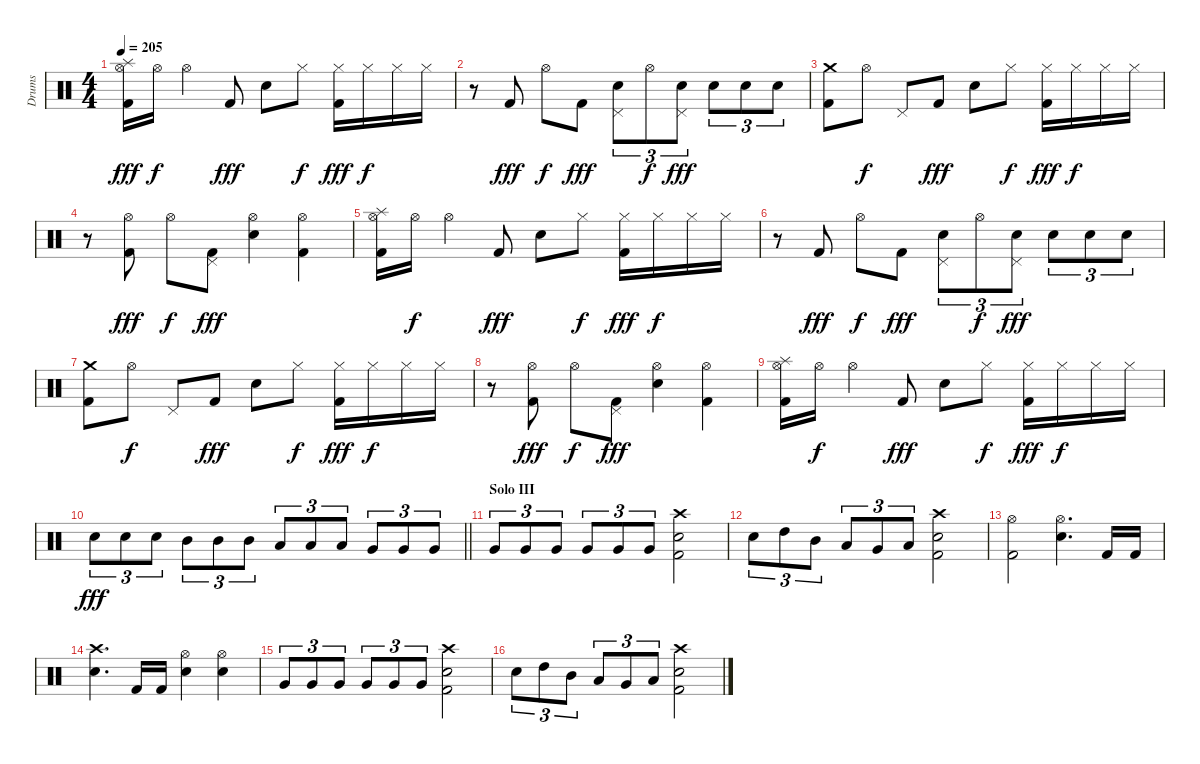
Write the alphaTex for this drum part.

\track ("Drums" "Drums") {instrument percussion}
\staff {score}
\articulation defaults
\ts (4 4)
\tempo 205
\clef neutral
\ks c
("Hi-Hat (open)" "Splash (hit)" "Kick (hit) 2").16{dy fff} "Hi-Hat (open)".16{dy f} "Hi-Hat (open)".4 "Kick (hit) 2".8{dy fff} "Snare (hit) 2".8 "Hi-Hat (closed)".8{dy f} ("Hi-Hat (closed)" "Kick (hit) 2").16{dy fff} "Hi-Hat (closed)".16{dy f} "Hi-Hat (closed)".16 "Hi-Hat (closed)".16 |
r.8 "Kick (hit) 2".8{dy fff} "Hi-Hat (open)".8{dy f} "Kick (hit) 2".8{dy fff} ("Pedal Hi-Hat (hit)" "Snare (hit) 2").8{tu (3 2)} "Hi-Hat (open)".8{tu (3 2) dy f} ("Pedal Hi-Hat (hit)" "Snare (hit) 2").8{tu (3 2) dy fff} "Snare (hit) 2".8{tu (3 2)} "Snare (hit) 2".8{tu (3 2)} "Snare (hit) 2".8{tu (3 2)} |
("Crash medium (hit)" "Kick (hit) 2").8 "Hi-Hat (open)".8{dy f} "Pedal Hi-Hat (hit)".8 "Kick (hit) 2".8{dy fff} "Snare (hit) 2".8 "Hi-Hat (closed)".8{dy f} ("Hi-Hat (closed)" "Kick (hit) 2").16{dy fff} "Hi-Hat (closed)".16{dy f} "Hi-Hat (closed)".16 "Hi-Hat (closed)".16 |
r.8 ("Hi-Hat (open)" "Kick (hit) 2").8{dy fff} "Hi-Hat (open)".8{dy f} ("Pedal Hi-Hat (hit)" "Kick (hit) 2").8{dy fff} ("Hi-Hat (open)" "Snare (hit) 2").4 ("Hi-Hat (open)" "Kick (hit) 2").4 |
("Hi-Hat (open)" "Splash (hit)" "Kick (hit) 2").16 "Hi-Hat (open)".16{dy f} "Hi-Hat (open)".4 "Kick (hit) 2".8{dy fff} "Snare (hit) 2".8 "Hi-Hat (closed)".8{dy f} ("Hi-Hat (closed)" "Kick (hit) 2").16{dy fff} "Hi-Hat (closed)".16{dy f} "Hi-Hat (closed)".16 "Hi-Hat (closed)".16 |
r.8 "Kick (hit) 2".8{dy fff} "Hi-Hat (open)".8{dy f} "Kick (hit) 2".8{dy fff} ("Pedal Hi-Hat (hit)" "Snare (hit) 2").8{tu (3 2)} "Hi-Hat (open)".8{tu (3 2) dy f} ("Pedal Hi-Hat (hit)" "Snare (hit) 2").8{tu (3 2) dy fff} "Snare (hit) 2".8{tu (3 2)} "Snare (hit) 2".8{tu (3 2)} "Snare (hit) 2".8{tu (3 2)} |
("Crash medium (hit)" "Kick (hit) 2").8 "Hi-Hat (open)".8{dy f} "Pedal Hi-Hat (hit)".8 "Kick (hit) 2".8{dy fff} "Snare (hit) 2".8 "Hi-Hat (closed)".8{dy f} ("Hi-Hat (closed)" "Kick (hit) 2").16{dy fff} "Hi-Hat (closed)".16{dy f} "Hi-Hat (closed)".16 "Hi-Hat (closed)".16 |
r.8 ("Hi-Hat (open)" "Kick (hit) 2").8{dy fff} "Hi-Hat (open)".8{dy f} ("Pedal Hi-Hat (hit)" "Kick (hit) 2").8{dy fff} ("Hi-Hat (open)" "Snare (hit) 2").4 ("Hi-Hat (open)" "Kick (hit) 2").4 |
("Hi-Hat (open)" "Splash (hit)" "Kick (hit) 2").16 "Hi-Hat (open)".16{dy f} "Hi-Hat (open)".4 "Kick (hit) 2".8{dy fff} "Snare (hit) 2".8 "Hi-Hat (closed)".8{dy f} ("Hi-Hat (closed)" "Kick (hit) 2").16{dy fff} "Hi-Hat (closed)".16{dy f} "Hi-Hat (closed)".16 "Hi-Hat (closed)".16 |
\barLineRight lightlight "Snare (hit) 2".8{tu (3 2) dy fff} "Snare (hit) 2".8{tu (3 2)} "Snare (hit) 2".8{tu (3 2)} "Mid Tom (hit)".8{tu (3 2)} "Mid Tom (hit)".8{tu (3 2)} "Mid Tom (hit)".8{tu (3 2)} "Low Tom (hit)".8{tu (3 2)} "Low Tom (hit)".8{tu (3 2)} "Low Tom (hit)".8{tu (3 2)} "Very Low Tom (hit)".8{tu (3 2)} "Very Low Tom (hit)".8{tu (3 2)} "Very Low Tom (hit)".8{tu (3 2)}
|
\section ("" "Solo III")
"Very Low Tom (hit)".8{tu (3 2)} "Very Low Tom (hit)".8{tu (3 2)} "Very Low Tom (hit)".8{tu (3 2)} "Very Low Tom (hit)".8{tu (3 2)} "Very Low Tom (hit)".8{tu (3 2)} "Very Low Tom (hit)".8{tu (3 2)} ("Crash high (hit)" "Snare (hit) 2" "Kick (hit) 2").2 |
"Snare (hit) 2".8{tu (3 2)} "High Tom (hit)".8{tu (3 2)} "Mid Tom (hit)".8{tu (3 2)} "Low Tom (hit)".8{tu (3 2)} "Very Low Tom (hit)".8{tu (3 2)} "Low Floor Tom (hit)".8{tu (3 2)} ("Crash high (hit)" "Snare (hit) 2" "Kick (hit) 2").2 |
("Hi-Hat (open)" "Kick (hit) 2").2 ("Hi-Hat (open)" "Snare (hit) 2").4{d} "Kick (hit) 2".16 "Kick (hit) 2".16 |
("Crash high (hit)" "Snare (hit) 2").4{d} "Kick (hit) 2".16 "Kick (hit) 2".16 ("Hi-Hat (open)" "Snare (hit) 2").4 ("Hi-Hat (open)" "Snare (hit) 2").4 |
"Very Low Tom (hit)".8{tu (3 2)} "Very Low Tom (hit)".8{tu (3 2)} "Very Low Tom (hit)".8{tu (3 2)} "Very Low Tom (hit)".8{tu (3 2)} "Very Low Tom (hit)".8{tu (3 2)} "Very Low Tom (hit)".8{tu (3 2)} ("Crash high (hit)" "Snare (hit) 2" "Kick (hit) 2").2 |
"Snare (hit) 2".8{tu (3 2)} "High Tom (hit)".8{tu (3 2)} "Mid Tom (hit)".8{tu (3 2)} "Low Tom (hit)".8{tu (3 2)} "Very Low Tom (hit)".8{tu (3 2)} "Low Floor Tom (hit)".8{tu (3 2)} ("Crash high (hit)" "Snare (hit) 2" "Kick (hit) 2").2
